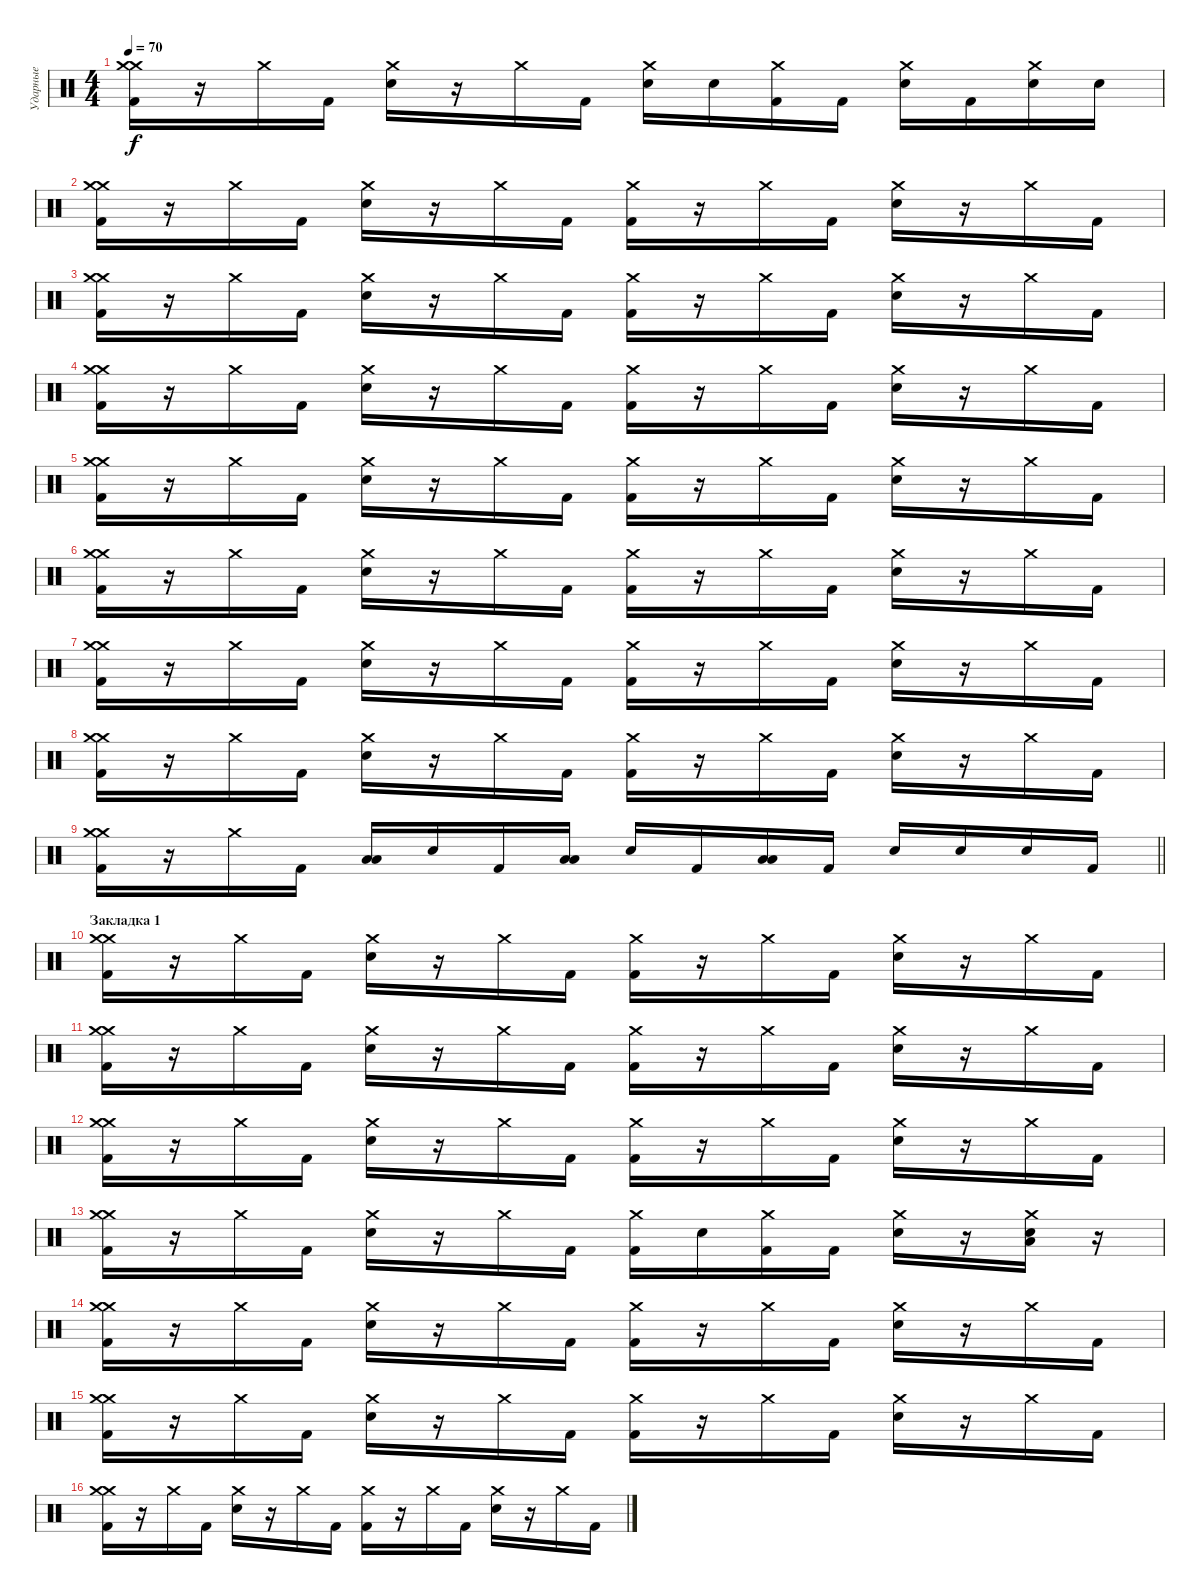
\track ("Ударные" "Ударные") {instrument percussion}
\staff {score}
\articulation defaults
\ts (4 4)
\tempo 70
\clef neutral
\ks c
("Crash medium (hit)" "Crash medium (hit)" "Kick (hit) 2").16{dy f} r.16 "Crash medium (hit)".16 "Kick (hit) 2".16 ("Crash medium (hit)" "Electric Snare (hit)").16 r.16 "Crash medium (hit)".16 "Kick (hit) 2".16 ("Crash medium (hit)" "Electric Snare (hit)").16 "Electric Snare (hit)".16 ("Crash medium (hit)" "Kick (hit) 2").16 "Kick (hit) 2".16 ("Crash medium (hit)" "Electric Snare (hit)").16 "Kick (hit) 2".16 ("Crash medium (hit)" "Electric Snare (hit)").16 "Electric Snare (hit)".16 |
("Crash medium (hit)" "Crash medium (hit)" "Kick (hit) 2").16 r.16 "Crash medium (hit)".16 "Kick (hit) 2".16 ("Crash medium (hit)" "Electric Snare (hit)").16 r.16 "Crash medium (hit)".16 "Kick (hit) 2".16 ("Crash medium (hit)" "Kick (hit) 2").16 r.16 "Crash medium (hit)".16 "Kick (hit) 2".16 ("Crash medium (hit)" "Electric Snare (hit)").16 r.16 "Crash medium (hit)".16 "Kick (hit) 2".16 |
("Crash medium (hit)" "Crash medium (hit)" "Kick (hit) 2").16 r.16 "Crash medium (hit)".16 "Kick (hit) 2".16 ("Crash medium (hit)" "Electric Snare (hit)").16 r.16 "Crash medium (hit)".16 "Kick (hit) 2".16 ("Crash medium (hit)" "Kick (hit) 2").16 r.16 "Crash medium (hit)".16 "Kick (hit) 2".16 ("Crash medium (hit)" "Electric Snare (hit)").16 r.16 "Crash medium (hit)".16 "Kick (hit) 2".16 |
("Crash medium (hit)" "Crash medium (hit)" "Kick (hit) 2").16 r.16 "Crash medium (hit)".16 "Kick (hit) 2".16 ("Crash medium (hit)" "Electric Snare (hit)").16 r.16 "Crash medium (hit)".16 "Kick (hit) 2".16 ("Crash medium (hit)" "Kick (hit) 2").16 r.16 "Crash medium (hit)".16 "Kick (hit) 2".16 ("Crash medium (hit)" "Electric Snare (hit)").16 r.16 "Crash medium (hit)".16 "Kick (hit) 2".16 |
("Crash medium (hit)" "Crash medium (hit)" "Kick (hit) 2").16 r.16 "Crash medium (hit)".16 "Kick (hit) 2".16 ("Crash medium (hit)" "Electric Snare (hit)").16 r.16 "Crash medium (hit)".16 "Kick (hit) 2".16 ("Crash medium (hit)" "Kick (hit) 2").16 r.16 "Crash medium (hit)".16 "Kick (hit) 2".16 ("Crash medium (hit)" "Electric Snare (hit)").16 r.16 "Crash medium (hit)".16 "Kick (hit) 2".16 |
("Crash medium (hit)" "Crash medium (hit)" "Kick (hit) 2").16 r.16 "Crash medium (hit)".16 "Kick (hit) 2".16 ("Crash medium (hit)" "Electric Snare (hit)").16 r.16 "Crash medium (hit)".16 "Kick (hit) 2".16 ("Crash medium (hit)" "Kick (hit) 2").16 r.16 "Crash medium (hit)".16 "Kick (hit) 2".16 ("Crash medium (hit)" "Electric Snare (hit)").16 r.16 "Crash medium (hit)".16 "Kick (hit) 2".16 |
("Crash medium (hit)" "Crash medium (hit)" "Kick (hit) 2").16 r.16 "Crash medium (hit)".16 "Kick (hit) 2".16 ("Crash medium (hit)" "Electric Snare (hit)").16 r.16 "Crash medium (hit)".16 "Kick (hit) 2".16 ("Crash medium (hit)" "Kick (hit) 2").16 r.16 "Crash medium (hit)".16 "Kick (hit) 2".16 ("Crash medium (hit)" "Electric Snare (hit)").16 r.16 "Crash medium (hit)".16 "Kick (hit) 2".16 |
("Crash medium (hit)" "Crash medium (hit)" "Kick (hit) 2").16 r.16 "Crash medium (hit)".16 "Kick (hit) 2".16 ("Crash medium (hit)" "Electric Snare (hit)").16 r.16 "Crash medium (hit)".16 "Kick (hit) 2".16 ("Crash medium (hit)" "Kick (hit) 2").16 r.16 "Crash medium (hit)".16 "Kick (hit) 2".16 ("Crash medium (hit)" "Electric Snare (hit)").16 r.16 "Crash medium (hit)".16 "Kick (hit) 2".16 |
\barLineRight lightlight
("Crash medium (hit)" "Crash medium (hit)" "Kick (hit) 2").16 r.16 "Crash medium (hit)".16 "Kick (hit) 2".16 ("Low Tom (hit)" "Low Floor Tom (hit)").16 "Electric Snare (hit)".16 "Kick (hit) 2".16 ("Low Tom (hit)" "Low Floor Tom (hit)").16 "Electric Snare (hit)".16 "Kick (hit) 2".16 ("Low Tom (hit)" "Low Floor Tom (hit)").16 "Kick (hit) 2".16 "Electric Snare (hit)".16 "Electric Snare (hit)".16 "Electric Snare (hit)".16 "Kick (hit) 2".16 |
\section ("" "Закладка 1")
("Crash medium (hit)" "Crash medium (hit)" "Kick (hit) 2").16{volume 16} r.16 "Crash medium (hit)".16 "Kick (hit) 2".16 ("Crash medium (hit)" "Electric Snare (hit)").16 r.16 "Crash medium (hit)".16 "Kick (hit) 2".16 ("Crash medium (hit)" "Kick (hit) 2").16 r.16 "Crash medium (hit)".16 "Kick (hit) 2".16 ("Crash medium (hit)" "Electric Snare (hit)").16 r.16 "Crash medium (hit)".16 "Kick (hit) 2".16 |
("Crash medium (hit)" "Crash medium (hit)" "Kick (hit) 2").16 r.16 "Crash medium (hit)".16 "Kick (hit) 2".16 ("Crash medium (hit)" "Electric Snare (hit)").16 r.16 "Crash medium (hit)".16 "Kick (hit) 2".16 ("Crash medium (hit)" "Kick (hit) 2").16 r.16 "Crash medium (hit)".16 "Kick (hit) 2".16 ("Crash medium (hit)" "Electric Snare (hit)").16 r.16 "Crash medium (hit)".16 "Kick (hit) 2".16 |
("Crash medium (hit)" "Crash medium (hit)" "Kick (hit) 2").16 r.16 "Crash medium (hit)".16 "Kick (hit) 2".16 ("Crash medium (hit)" "Electric Snare (hit)").16 r.16 "Crash medium (hit)".16 "Kick (hit) 2".16 ("Crash medium (hit)" "Kick (hit) 2").16 r.16 "Crash medium (hit)".16 "Kick (hit) 2".16 ("Crash medium (hit)" "Electric Snare (hit)").16 r.16 "Crash medium (hit)".16 "Kick (hit) 2".16 |
("Crash medium (hit)" "Crash medium (hit)" "Kick (hit) 2").16 r.16 "Crash medium (hit)".16 "Kick (hit) 2".16 ("Crash medium (hit)" "Electric Snare (hit)").16 r.16 "Crash medium (hit)".16 "Kick (hit) 2".16 ("Crash medium (hit)" "Kick (hit) 2").16 "Electric Snare (hit)".16 ("Crash medium (hit)" "Kick (hit) 2").16 "Kick (hit) 2".16 ("Crash medium (hit)" "Electric Snare (hit)").16 r.16 ("Crash medium (hit)" "Electric Snare (hit)" "Low Floor Tom (hit)").16 r.16 |
("Crash medium (hit)" "Crash medium (hit)" "Kick (hit) 2").16{volume 16} r.16 "Crash medium (hit)".16 "Kick (hit) 2".16 ("Crash medium (hit)" "Electric Snare (hit)").16 r.16 "Crash medium (hit)".16 "Kick (hit) 2".16 ("Crash medium (hit)" "Kick (hit) 2").16 r.16 "Crash medium (hit)".16 "Kick (hit) 2".16 ("Crash medium (hit)" "Electric Snare (hit)").16 r.16 "Crash medium (hit)".16 "Kick (hit) 2".16 |
("Crash medium (hit)" "Crash medium (hit)" "Kick (hit) 2").16 r.16 "Crash medium (hit)".16 "Kick (hit) 2".16 ("Crash medium (hit)" "Electric Snare (hit)").16 r.16 "Crash medium (hit)".16 "Kick (hit) 2".16 ("Crash medium (hit)" "Kick (hit) 2").16 r.16 "Crash medium (hit)".16 "Kick (hit) 2".16 ("Crash medium (hit)" "Electric Snare (hit)").16 r.16 "Crash medium (hit)".16 "Kick (hit) 2".16 |
("Crash medium (hit)" "Crash medium (hit)" "Kick (hit) 2").16 r.16 "Crash medium (hit)".16 "Kick (hit) 2".16 ("Crash medium (hit)" "Electric Snare (hit)").16 r.16 "Crash medium (hit)".16 "Kick (hit) 2".16 ("Crash medium (hit)" "Kick (hit) 2").16 r.16 "Crash medium (hit)".16 "Kick (hit) 2".16 ("Crash medium (hit)" "Electric Snare (hit)").16 r.16 "Crash medium (hit)".16 "Kick (hit) 2".16
